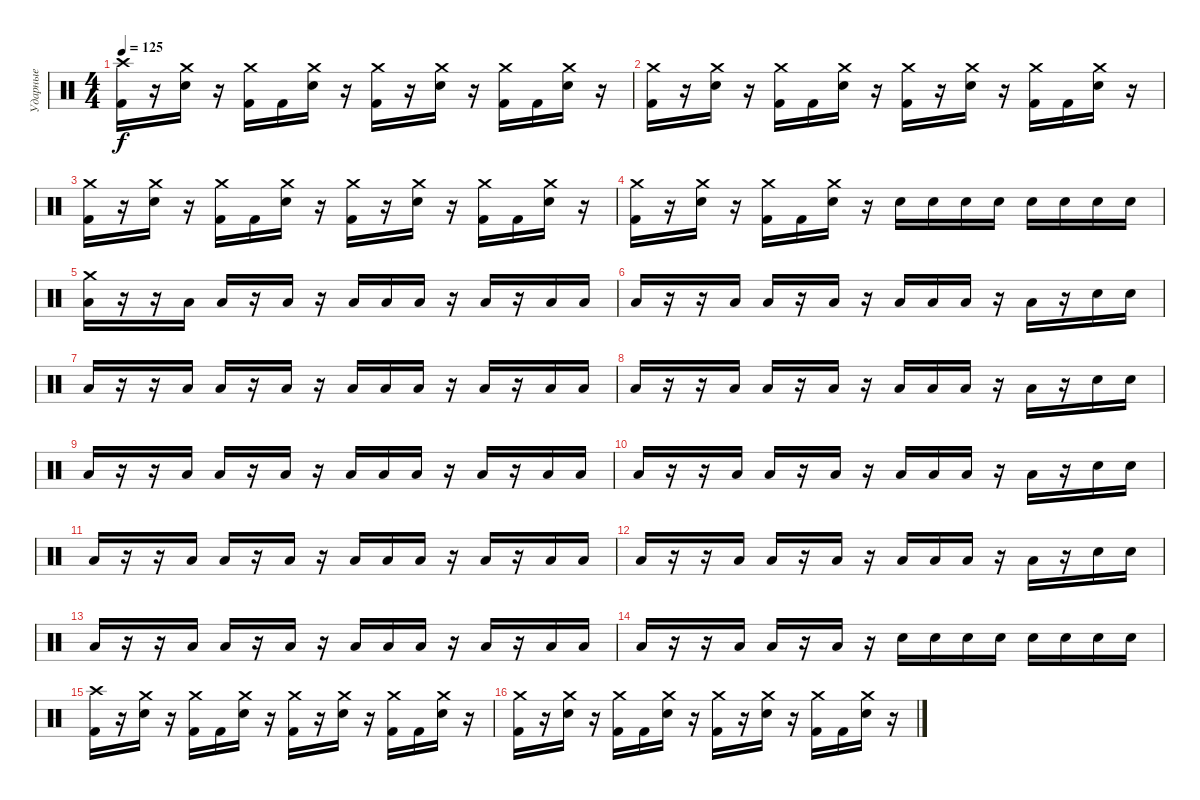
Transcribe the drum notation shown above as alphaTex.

\track ("Ударные" "Ударные") {instrument percussion}
\staff {score}
\articulation defaults
\ts (4 4)
\tempo 125
\clef neutral
\ks c
("Crash high (hit)" "Kick (hit) 2").16{dy f} r.16 ("Crash medium (hit)" "Snare (hit) 2").16 r.16 ("Crash medium (hit)" "Kick (hit) 2").16 "Kick (hit) 2".16 ("Crash medium (hit)" "Snare (hit) 2").16 r.16 ("Crash medium (hit)" "Kick (hit) 2").16 r.16 ("Crash medium (hit)" "Snare (hit) 2").16 r.16 ("Crash medium (hit)" "Kick (hit) 2").16 "Kick (hit) 2".16 ("Crash medium (hit)" "Snare (hit) 2").16 r.16 |
("Crash medium (hit)" "Kick (hit) 2").16 r.16 ("Crash medium (hit)" "Snare (hit) 2").16 r.16 ("Crash medium (hit)" "Kick (hit) 2").16 "Kick (hit) 2".16 ("Crash medium (hit)" "Snare (hit) 2").16 r.16 ("Crash medium (hit)" "Kick (hit) 2").16 r.16 ("Crash medium (hit)" "Snare (hit) 2").16 r.16 ("Crash medium (hit)" "Kick (hit) 2").16 "Kick (hit) 2".16 ("Crash medium (hit)" "Snare (hit) 2").16 r.16 |
("Crash medium (hit)" "Kick (hit) 2").16 r.16 ("Crash medium (hit)" "Snare (hit) 2").16 r.16 ("Crash medium (hit)" "Kick (hit) 2").16 "Kick (hit) 2".16 ("Crash medium (hit)" "Snare (hit) 2").16 r.16 ("Crash medium (hit)" "Kick (hit) 2").16 r.16 ("Crash medium (hit)" "Snare (hit) 2").16 r.16 ("Crash medium (hit)" "Kick (hit) 2").16 "Kick (hit) 2".16 ("Crash medium (hit)" "Snare (hit) 2").16 r.16 |
("Crash medium (hit)" "Kick (hit) 2").16 r.16 ("Crash medium (hit)" "Snare (hit) 2").16 r.16 ("Crash medium (hit)" "Kick (hit) 2").16 "Kick (hit) 2".16 ("Crash medium (hit)" "Snare (hit) 2").16 r.16 "Snare (hit) 2".16 "Snare (hit) 2".16 "Snare (hit) 2".16 "Snare (hit) 2".16 "Snare (hit) 2".16 "Snare (hit) 2".16 "Snare (hit) 2".16 "Snare (hit) 2".16 |
("Crash medium (hit)" "Low Tom (hit)").16 r.16 r.16 "Low Tom (hit)".16 "Low Tom (hit)".16 r.16 "Low Tom (hit)".16 r.16 "Low Tom (hit)".16 "Low Tom (hit)".16 "Low Tom (hit)".16 r.16 "Low Tom (hit)".16 r.16 "Low Tom (hit)".16 "Low Tom (hit)".16 |
"Low Tom (hit)".16 r.16 r.16 "Low Tom (hit)".16 "Low Tom (hit)".16 r.16 "Low Tom (hit)".16 r.16 "Low Tom (hit)".16 "Low Tom (hit)".16 "Low Tom (hit)".16 r.16 "Low Tom (hit)".16 r.16 "Snare (hit) 2".16 "Snare (hit) 2".16 |
"Low Tom (hit)".16 r.16 r.16 "Low Tom (hit)".16 "Low Tom (hit)".16 r.16 "Low Tom (hit)".16 r.16 "Low Tom (hit)".16 "Low Tom (hit)".16 "Low Tom (hit)".16 r.16 "Low Tom (hit)".16 r.16 "Low Tom (hit)".16 "Low Tom (hit)".16 |
"Low Tom (hit)".16 r.16 r.16 "Low Tom (hit)".16 "Low Tom (hit)".16 r.16 "Low Tom (hit)".16 r.16 "Low Tom (hit)".16 "Low Tom (hit)".16 "Low Tom (hit)".16 r.16 "Low Tom (hit)".16 r.16 "Snare (hit) 2".16 "Snare (hit) 2".16 |
"Low Tom (hit)".16 r.16 r.16 "Low Tom (hit)".16 "Low Tom (hit)".16 r.16 "Low Tom (hit)".16 r.16 "Low Tom (hit)".16 "Low Tom (hit)".16 "Low Tom (hit)".16 r.16 "Low Tom (hit)".16 r.16 "Low Tom (hit)".16 "Low Tom (hit)".16 |
"Low Tom (hit)".16 r.16 r.16 "Low Tom (hit)".16 "Low Tom (hit)".16 r.16 "Low Tom (hit)".16 r.16 "Low Tom (hit)".16 "Low Tom (hit)".16 "Low Tom (hit)".16 r.16 "Low Tom (hit)".16 r.16 "Snare (hit) 2".16 "Snare (hit) 2".16 |
"Low Tom (hit)".16 r.16 r.16 "Low Tom (hit)".16 "Low Tom (hit)".16 r.16 "Low Tom (hit)".16 r.16 "Low Tom (hit)".16 "Low Tom (hit)".16 "Low Tom (hit)".16 r.16 "Low Tom (hit)".16 r.16 "Low Tom (hit)".16 "Low Tom (hit)".16 |
"Low Tom (hit)".16 r.16 r.16 "Low Tom (hit)".16 "Low Tom (hit)".16 r.16 "Low Tom (hit)".16 r.16 "Low Tom (hit)".16 "Low Tom (hit)".16 "Low Tom (hit)".16 r.16 "Low Tom (hit)".16 r.16 "Snare (hit) 2".16 "Snare (hit) 2".16 |
"Low Tom (hit)".16 r.16 r.16 "Low Tom (hit)".16 "Low Tom (hit)".16 r.16 "Low Tom (hit)".16 r.16 "Low Tom (hit)".16 "Low Tom (hit)".16 "Low Tom (hit)".16 r.16 "Low Tom (hit)".16 r.16 "Low Tom (hit)".16 "Low Tom (hit)".16 |
"Low Tom (hit)".16 r.16 r.16 "Low Tom (hit)".16 "Low Tom (hit)".16 r.16 "Low Tom (hit)".16 r.16 "Snare (hit) 2".16 "Snare (hit) 2".16 "Snare (hit) 2".16 "Snare (hit) 2".16 "Snare (hit) 2".16 "Snare (hit) 2".16 "Snare (hit) 2".16 "Snare (hit) 2".16 |
("Crash high (hit)" "Kick (hit) 2").16 r.16 ("Crash medium (hit)" "Snare (hit) 2").16 r.16 ("Crash medium (hit)" "Kick (hit) 2").16 "Kick (hit) 2".16 ("Crash medium (hit)" "Snare (hit) 2").16 r.16 ("Crash medium (hit)" "Kick (hit) 2").16 r.16 ("Crash medium (hit)" "Snare (hit) 2").16 r.16 ("Crash medium (hit)" "Kick (hit) 2").16 "Kick (hit) 2".16 ("Crash medium (hit)" "Snare (hit) 2").16 r.16 |
("Crash medium (hit)" "Kick (hit) 2").16 r.16 ("Crash medium (hit)" "Snare (hit) 2").16 r.16 ("Crash medium (hit)" "Kick (hit) 2").16 "Kick (hit) 2".16 ("Crash medium (hit)" "Snare (hit) 2").16 r.16 ("Crash medium (hit)" "Kick (hit) 2").16 r.16 ("Crash medium (hit)" "Snare (hit) 2").16 r.16 ("Crash medium (hit)" "Kick (hit) 2").16 "Kick (hit) 2".16 ("Crash medium (hit)" "Snare (hit) 2").16 r.16
